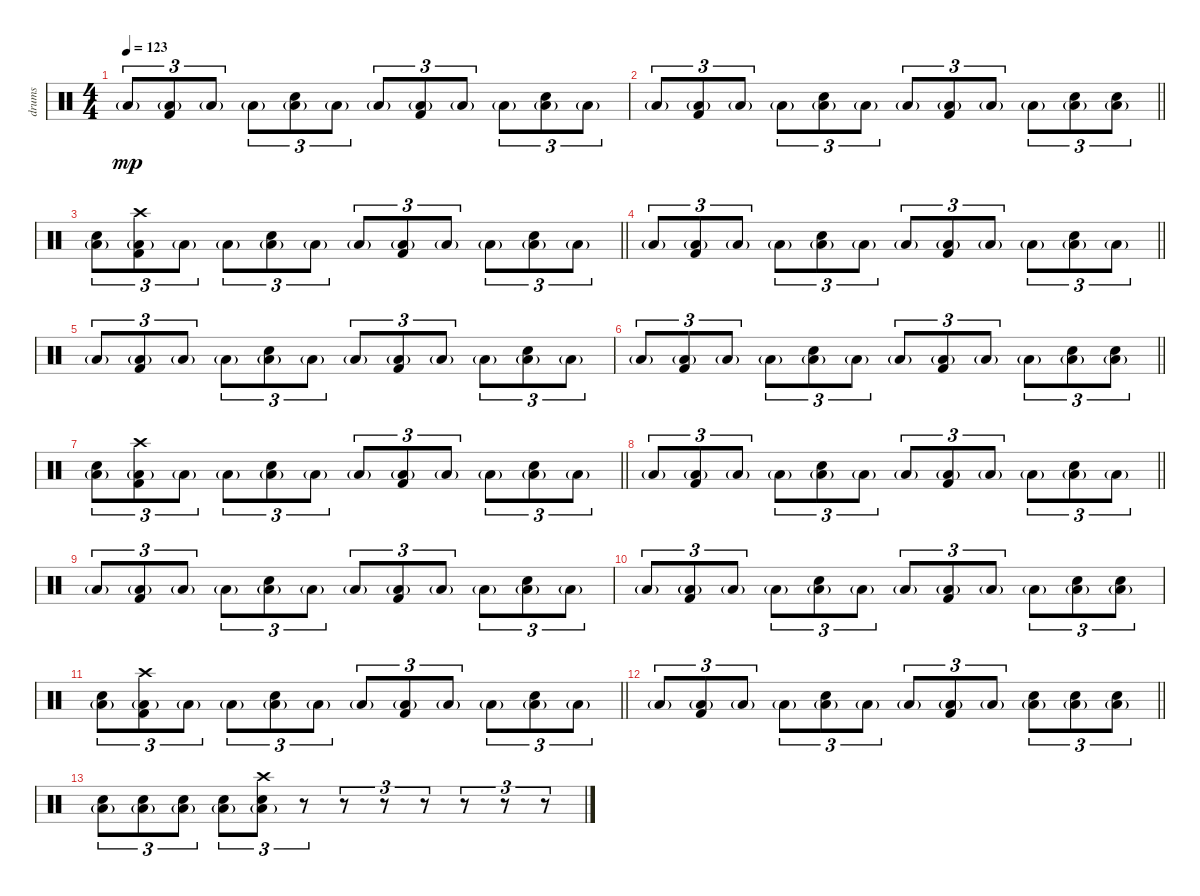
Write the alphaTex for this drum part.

\track ("drums" "drums") {instrument percussion}
\staff {score}
\articulation defaults
\ts (4 4)
\tempo 123
\clef neutral
\ks c "Low Floor Tom (hit)"{g}.8{tu (3 2) dy mp}
("Low Floor Tom (hit)"{g} "Kick (hit) 2").8{tu (3 2)} "Low Floor Tom (hit)"{g}.8{tu (3 2)} "Low Floor Tom (hit)"{g}.8{tu (3 2)} ("Low Floor Tom (hit)"{g} "Electric Snare (hit)").8{tu (3 2)} "Low Floor Tom (hit)"{g}.8{tu (3 2)} "Low Floor Tom (hit)"{g}.8{tu (3 2)} ("Low Floor Tom (hit)"{g} "Kick (hit) 2").8{tu (3 2)} "Low Floor Tom (hit)"{g}.8{tu (3 2)} "Low Floor Tom (hit)"{g}.8{tu (3 2)} ("Low Floor Tom (hit)"{g} "Electric Snare (hit)").8{tu (3 2)} "Low Floor Tom (hit)"{g}.8{tu (3 2)} |
\barLineRight lightlight "Low Floor Tom (hit)"{g}.8{tu (3 2)}
("Low Floor Tom (hit)"{g} "Kick (hit) 2").8{tu (3 2)} "Low Floor Tom (hit)"{g}.8{tu (3 2)} "Low Floor Tom (hit)"{g}.8{tu (3 2)} ("Low Floor Tom (hit)"{g} "Electric Snare (hit)").8{tu (3 2)} "Low Floor Tom (hit)"{g}.8{tu (3 2)} "Low Floor Tom (hit)"{g}.8{tu (3 2)} ("Low Floor Tom (hit)"{g} "Kick (hit) 2").8{tu (3 2)} "Low Floor Tom (hit)"{g}.8{tu (3 2)} "Low Floor Tom (hit)"{g}.8{tu (3 2)} ("Low Floor Tom (hit)"{g} "Electric Snare (hit)").8{tu (3 2)} ("Low Floor Tom (hit)"{g} "Electric Snare (hit)").8{tu (3 2)} |
\barLineRight lightlight
("Low Floor Tom (hit)"{g} "Electric Snare (hit)").8{tu (3 2)} ("Low Floor Tom (hit)"{g} "Kick (hit) 2" "Crash high (hit)").8{tu (3 2)} "Low Floor Tom (hit)"{g}.8{tu (3 2)} "Low Floor Tom (hit)"{g}.8{tu (3 2)} ("Low Floor Tom (hit)"{g} "Electric Snare (hit)").8{tu (3 2)} "Low Floor Tom (hit)"{g}.8{tu (3 2)} "Low Floor Tom (hit)"{g}.8{tu (3 2)} ("Low Floor Tom (hit)"{g} "Kick (hit) 2").8{tu (3 2)} "Low Floor Tom (hit)"{g}.8{tu (3 2)} "Low Floor Tom (hit)"{g}.8{tu (3 2)} ("Low Floor Tom (hit)"{g} "Electric Snare (hit)").8{tu (3 2)} "Low Floor Tom (hit)"{g}.8{tu (3 2)} |
\barLineRight lightlight "Low Floor Tom (hit)"{g}.8{tu (3 2)}
("Low Floor Tom (hit)"{g} "Kick (hit) 2").8{tu (3 2)} "Low Floor Tom (hit)"{g}.8{tu (3 2)} "Low Floor Tom (hit)"{g}.8{tu (3 2)} ("Low Floor Tom (hit)"{g} "Electric Snare (hit)").8{tu (3 2)} "Low Floor Tom (hit)"{g}.8{tu (3 2)} "Low Floor Tom (hit)"{g}.8{tu (3 2)} ("Low Floor Tom (hit)"{g} "Kick (hit) 2").8{tu (3 2)} "Low Floor Tom (hit)"{g}.8{tu (3 2)} "Low Floor Tom (hit)"{g}.8{tu (3 2)} ("Low Floor Tom (hit)"{g} "Electric Snare (hit)").8{tu (3 2)} "Low Floor Tom (hit)"{g}.8{tu (3 2)} |
"Low Floor Tom (hit)"{g}.8{tu (3 2)} ("Low Floor Tom (hit)"{g} "Kick (hit) 2").8{tu (3 2)} "Low Floor Tom (hit)"{g}.8{tu (3 2)} "Low Floor Tom (hit)"{g}.8{tu (3 2)} ("Low Floor Tom (hit)"{g} "Electric Snare (hit)").8{tu (3 2)} "Low Floor Tom (hit)"{g}.8{tu (3 2)} "Low Floor Tom (hit)"{g}.8{tu (3 2)} ("Low Floor Tom (hit)"{g} "Kick (hit) 2").8{tu (3 2)} "Low Floor Tom (hit)"{g}.8{tu (3 2)} "Low Floor Tom (hit)"{g}.8{tu (3 2)} ("Low Floor Tom (hit)"{g} "Electric Snare (hit)").8{tu (3 2)} "Low Floor Tom (hit)"{g}.8{tu (3 2)} |
\barLineRight lightlight "Low Floor Tom (hit)"{g}.8{tu (3 2)}
("Low Floor Tom (hit)"{g} "Kick (hit) 2").8{tu (3 2)} "Low Floor Tom (hit)"{g}.8{tu (3 2)} "Low Floor Tom (hit)"{g}.8{tu (3 2)} ("Low Floor Tom (hit)"{g} "Electric Snare (hit)").8{tu (3 2)} "Low Floor Tom (hit)"{g}.8{tu (3 2)} "Low Floor Tom (hit)"{g}.8{tu (3 2)} ("Low Floor Tom (hit)"{g} "Kick (hit) 2").8{tu (3 2)} "Low Floor Tom (hit)"{g}.8{tu (3 2)} "Low Floor Tom (hit)"{g}.8{tu (3 2)} ("Low Floor Tom (hit)"{g} "Electric Snare (hit)").8{tu (3 2)} ("Low Floor Tom (hit)"{g} "Electric Snare (hit)").8{tu (3 2)} |
\barLineRight lightlight
("Low Floor Tom (hit)"{g} "Electric Snare (hit)").8{tu (3 2)} ("Low Floor Tom (hit)"{g} "Kick (hit) 2" "Crash high (hit)").8{tu (3 2)} "Low Floor Tom (hit)"{g}.8{tu (3 2)} "Low Floor Tom (hit)"{g}.8{tu (3 2)} ("Low Floor Tom (hit)"{g} "Electric Snare (hit)").8{tu (3 2)} "Low Floor Tom (hit)"{g}.8{tu (3 2)} "Low Floor Tom (hit)"{g}.8{tu (3 2)} ("Low Floor Tom (hit)"{g} "Kick (hit) 2").8{tu (3 2)} "Low Floor Tom (hit)"{g}.8{tu (3 2)} "Low Floor Tom (hit)"{g}.8{tu (3 2)} ("Low Floor Tom (hit)"{g} "Electric Snare (hit)").8{tu (3 2)} "Low Floor Tom (hit)"{g}.8{tu (3 2)} |
\barLineRight lightlight "Low Floor Tom (hit)"{g}.8{tu (3 2)}
("Low Floor Tom (hit)"{g} "Kick (hit) 2").8{tu (3 2)} "Low Floor Tom (hit)"{g}.8{tu (3 2)} "Low Floor Tom (hit)"{g}.8{tu (3 2)} ("Low Floor Tom (hit)"{g} "Electric Snare (hit)").8{tu (3 2)} "Low Floor Tom (hit)"{g}.8{tu (3 2)} "Low Floor Tom (hit)"{g}.8{tu (3 2)} ("Low Floor Tom (hit)"{g} "Kick (hit) 2").8{tu (3 2)} "Low Floor Tom (hit)"{g}.8{tu (3 2)} "Low Floor Tom (hit)"{g}.8{tu (3 2)} ("Low Floor Tom (hit)"{g} "Electric Snare (hit)").8{tu (3 2)} "Low Floor Tom (hit)"{g}.8{tu (3 2)} |
"Low Floor Tom (hit)"{g}.8{tu (3 2)} ("Low Floor Tom (hit)"{g} "Kick (hit) 2").8{tu (3 2)} "Low Floor Tom (hit)"{g}.8{tu (3 2)} "Low Floor Tom (hit)"{g}.8{tu (3 2)} ("Low Floor Tom (hit)"{g} "Electric Snare (hit)").8{tu (3 2)} "Low Floor Tom (hit)"{g}.8{tu (3 2)} "Low Floor Tom (hit)"{g}.8{tu (3 2)} ("Low Floor Tom (hit)"{g} "Kick (hit) 2").8{tu (3 2)} "Low Floor Tom (hit)"{g}.8{tu (3 2)} "Low Floor Tom (hit)"{g}.8{tu (3 2)} ("Low Floor Tom (hit)"{g} "Electric Snare (hit)").8{tu (3 2)} "Low Floor Tom (hit)"{g}.8{tu (3 2)} |
"Low Floor Tom (hit)"{g}.8{tu (3 2)} ("Low Floor Tom (hit)"{g} "Kick (hit) 2").8{tu (3 2)} "Low Floor Tom (hit)"{g}.8{tu (3 2)} "Low Floor Tom (hit)"{g}.8{tu (3 2)} ("Low Floor Tom (hit)"{g} "Electric Snare (hit)").8{tu (3 2)} "Low Floor Tom (hit)"{g}.8{tu (3 2)} "Low Floor Tom (hit)"{g}.8{tu (3 2)} ("Low Floor Tom (hit)"{g} "Kick (hit) 2").8{tu (3 2)} "Low Floor Tom (hit)"{g}.8{tu (3 2)} "Low Floor Tom (hit)"{g}.8{tu (3 2)} ("Low Floor Tom (hit)"{g} "Electric Snare (hit)").8{tu (3 2)} ("Low Floor Tom (hit)"{g} "Electric Snare (hit)").8{tu (3 2)} |
\barLineRight lightlight
("Low Floor Tom (hit)"{g} "Electric Snare (hit)").8{tu (3 2)} ("Low Floor Tom (hit)"{g} "Kick (hit) 2" "Crash high (hit)").8{tu (3 2)} "Low Floor Tom (hit)"{g}.8{tu (3 2)} "Low Floor Tom (hit)"{g}.8{tu (3 2)} ("Low Floor Tom (hit)"{g} "Electric Snare (hit)").8{tu (3 2)} "Low Floor Tom (hit)"{g}.8{tu (3 2)} "Low Floor Tom (hit)"{g}.8{tu (3 2)} ("Low Floor Tom (hit)"{g} "Kick (hit) 2").8{tu (3 2)} "Low Floor Tom (hit)"{g}.8{tu (3 2)} "Low Floor Tom (hit)"{g}.8{tu (3 2)} ("Low Floor Tom (hit)"{g} "Electric Snare (hit)").8{tu (3 2)} "Low Floor Tom (hit)"{g}.8{tu (3 2)} |
\barLineRight lightlight "Low Floor Tom (hit)"{g}.8{tu (3 2)}
("Low Floor Tom (hit)"{g} "Kick (hit) 2").8{tu (3 2)} "Low Floor Tom (hit)"{g}.8{tu (3 2)} "Low Floor Tom (hit)"{g}.8{tu (3 2)} ("Low Floor Tom (hit)"{g} "Electric Snare (hit)").8{tu (3 2)} "Low Floor Tom (hit)"{g}.8{tu (3 2)} "Low Floor Tom (hit)"{g}.8{tu (3 2)} ("Low Floor Tom (hit)"{g} "Kick (hit) 2").8{tu (3 2)} "Low Floor Tom (hit)"{g}.8{tu (3 2)} ("Low Floor Tom (hit)"{g} "Electric Snare (hit)").8{tu (3 2)} ("Low Floor Tom (hit)"{g} "Electric Snare (hit)").8{tu (3 2)} ("Low Floor Tom (hit)"{g} "Electric Snare (hit)").8{tu (3 2)} |
("Low Floor Tom (hit)"{g} "Electric Snare (hit)").8{tu (3 2)} ("Low Floor Tom (hit)"{g} "Electric Snare (hit)").8{tu (3 2)} ("Low Floor Tom (hit)"{g} "Electric Snare (hit)").8{tu (3 2)} ("Low Floor Tom (hit)"{g} "Electric Snare (hit)").8{tu (3 2)} ("Low Floor Tom (hit)"{g} "Electric Snare (hit)" "Crash high (hit)").8{tu (3 2)} r.8{tu (3 2)} r.8{tu (3 2)} r.8{tu (3 2)} r.8{tu (3 2)} r.8{tu (3 2)} r.8{tu (3 2)} r.8{tu (3 2)}
